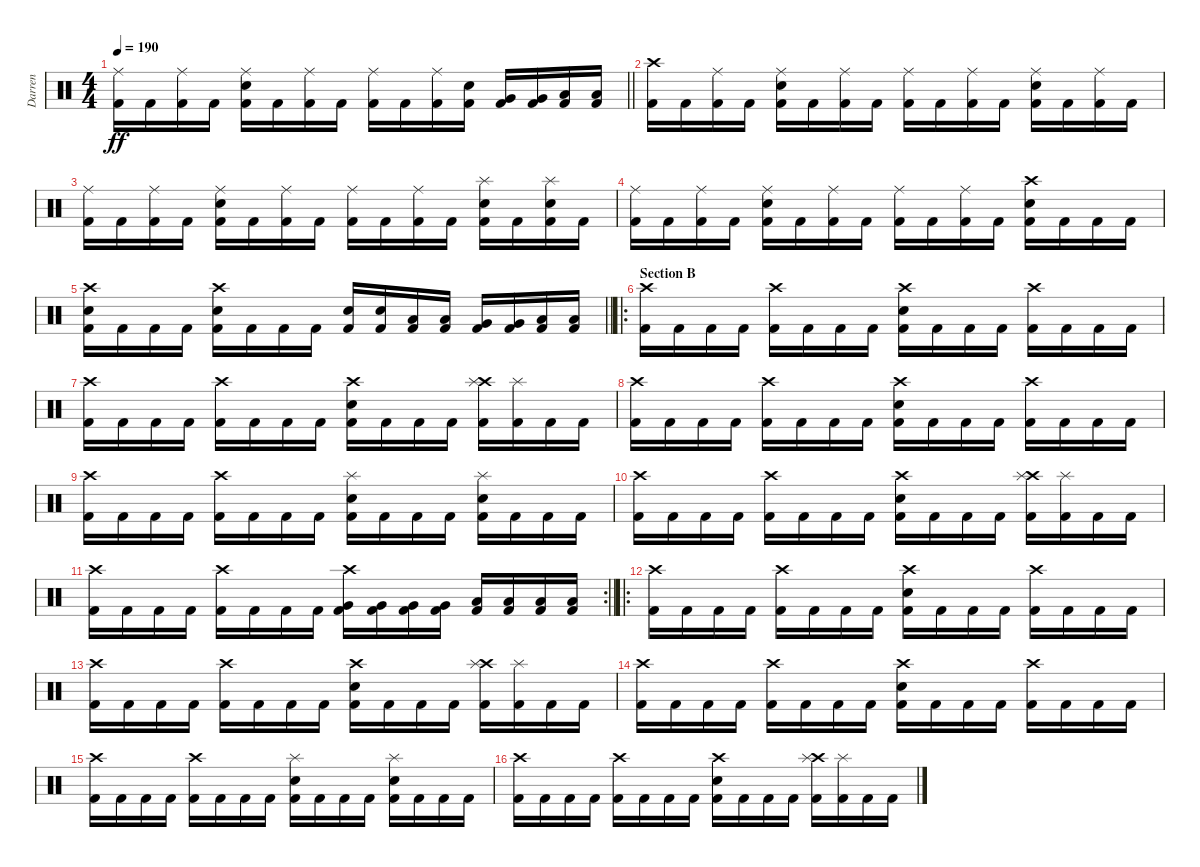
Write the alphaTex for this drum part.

\track ("Darren" "Darren") {instrument percussion}
\staff {score}
\articulation defaults
\ts (4 4)
\tempo 190
\clef neutral
\barLineRight lightlight
\ks c
("Ride (middle)" "Kick (hit) 2").16{dy ff} "Kick (hit) 2".16 ("Ride (middle)" "Kick (hit) 2").16 "Kick (hit) 2".16 ("Ride (middle)" "Electric Snare (hit)" "Kick (hit) 2").16 "Kick (hit) 2".16 ("Ride (middle)" "Kick (hit) 2").16 "Kick (hit) 2".16 ("Ride (middle)" "Kick (hit) 2").16 "Kick (hit) 2".16 ("Ride (middle)" "Kick (hit) 2").16 ("Electric Snare (hit)" "Kick (hit) 2").16 ("Very Low Tom (hit)" "Kick (hit) 2").16 ("Very Low Tom (hit)" "Kick (hit) 2").16 ("Low Floor Tom (hit)" "Kick (hit) 2").16 ("Low Floor Tom (hit)" "Kick (hit) 2").16 |
("Crash high (hit)" "Kick (hit) 2").16 "Kick (hit) 2".16 ("Ride (middle)" "Kick (hit) 2").16 "Kick (hit) 2".16 ("Ride (middle)" "Electric Snare (hit)" "Kick (hit) 2").16 "Kick (hit) 2".16 ("Ride (middle)" "Kick (hit) 2").16 "Kick (hit) 2".16 ("Ride (middle)" "Kick (hit) 2").16 "Kick (hit) 2".16 ("Ride (middle)" "Kick (hit) 2").16 "Kick (hit) 2".16 ("Ride (middle)" "Electric Snare (hit)" "Kick (hit) 2").16 "Kick (hit) 2".16 ("Ride (middle)" "Kick (hit) 2").16 "Kick (hit) 2".16 |
("Ride (middle)" "Kick (hit) 2").16 "Kick (hit) 2".16 ("Ride (middle)" "Kick (hit) 2").16 "Kick (hit) 2".16 ("Ride (middle)" "Electric Snare (hit)" "Kick (hit) 2").16 "Kick (hit) 2".16 ("Ride (middle)" "Kick (hit) 2").16 "Kick (hit) 2".16 ("Ride (middle)" "Kick (hit) 2").16 "Kick (hit) 2".16 ("Ride (middle)" "Kick (hit) 2").16 "Kick (hit) 2".16 ("Splash (hit)" "Electric Snare (hit)" "Kick (hit) 2").16 "Kick (hit) 2".16 ("Splash (hit)" "Electric Snare (hit)" "Kick (hit) 2").16 "Kick (hit) 2".16 |
("Ride (middle)" "Kick (hit) 2").16 "Kick (hit) 2".16 ("Ride (middle)" "Kick (hit) 2").16 "Kick (hit) 2".16 ("Ride (middle)" "Electric Snare (hit)" "Kick (hit) 2").16 "Kick (hit) 2".16 ("Ride (middle)" "Kick (hit) 2").16 "Kick (hit) 2".16 ("Ride (middle)" "Kick (hit) 2").16 "Kick (hit) 2".16 ("Ride (middle)" "Kick (hit) 2").16 "Kick (hit) 2".16 ("Crash high (hit)" "Electric Snare (hit)" "Kick (hit) 2").16 "Kick (hit) 2".16 "Kick (hit) 2".16 "Kick (hit) 2".16 |
\barLineRight lightlight
("Crash high (hit)" "Electric Snare (hit)" "Kick (hit) 2").16 "Kick (hit) 2".16 "Kick (hit) 2".16 "Kick (hit) 2".16 ("Crash high (hit)" "Electric Snare (hit)" "Kick (hit) 2").16 "Kick (hit) 2".16 "Kick (hit) 2".16 "Kick (hit) 2".16 ("Electric Snare (hit)" "Kick (hit) 2").16 ("Electric Snare (hit)" "Kick (hit) 2").16 ("Low Tom (hit)" "Kick (hit) 2").16 ("Low Tom (hit)" "Kick (hit) 2").16 ("Very Low Tom (hit)" "Kick (hit) 2").16 ("Very Low Tom (hit)" "Kick (hit) 2").16 ("Low Floor Tom (hit)" "Kick (hit) 2").16 ("Low Floor Tom (hit)" "Kick (hit) 2").16 |
\ro
\section ("" "Section B")
("Crash high (hit)" "Kick (hit) 2").16 "Kick (hit) 2".16 "Kick (hit) 2".16 "Kick (hit) 2".16 ("Crash high (hit)" "Kick (hit) 2").16 "Kick (hit) 2".16 "Kick (hit) 2".16 "Kick (hit) 2".16 ("Crash high (hit)" "Electric Snare (hit)" "Kick (hit) 2").16 "Kick (hit) 2".16 "Kick (hit) 2".16 "Kick (hit) 2".16 ("Crash high (hit)" "Kick (hit) 2").16 "Kick (hit) 2".16 "Kick (hit) 2".16 "Kick (hit) 2".16 |
("Crash high (hit)" "Kick (hit) 2").16 "Kick (hit) 2".16 "Kick (hit) 2".16 "Kick (hit) 2".16 ("Crash high (hit)" "Kick (hit) 2").16 "Kick (hit) 2".16 "Kick (hit) 2".16 "Kick (hit) 2".16 ("Crash high (hit)" "Electric Snare (hit)" "Kick (hit) 2").16 "Kick (hit) 2".16 "Kick (hit) 2".16 "Kick (hit) 2".16 ("Crash high (hit)" "Splash (hit)" "Kick (hit) 2").16 ("Splash (hit)" "Kick (hit) 2").16 "Kick (hit) 2".16 "Kick (hit) 2".16 |
("Crash high (hit)" "Kick (hit) 2").16 "Kick (hit) 2".16 "Kick (hit) 2".16 "Kick (hit) 2".16 ("Crash high (hit)" "Kick (hit) 2").16 "Kick (hit) 2".16 "Kick (hit) 2".16 "Kick (hit) 2".16 ("Crash high (hit)" "Electric Snare (hit)" "Kick (hit) 2").16 "Kick (hit) 2".16 "Kick (hit) 2".16 "Kick (hit) 2".16 ("Crash high (hit)" "Kick (hit) 2").16 "Kick (hit) 2".16 "Kick (hit) 2".16 "Kick (hit) 2".16 |
("Crash high (hit)" "Kick (hit) 2").16 "Kick (hit) 2".16 "Kick (hit) 2".16 "Kick (hit) 2".16 ("Crash high (hit)" "Kick (hit) 2").16 "Kick (hit) 2".16 "Kick (hit) 2".16 "Kick (hit) 2".16 ("Splash (hit)" "Electric Snare (hit)" "Kick (hit) 2").16 "Kick (hit) 2".16 "Kick (hit) 2".16 "Kick (hit) 2".16 ("Splash (hit)" "Electric Snare (hit)" "Kick (hit) 2").16 "Kick (hit) 2".16 "Kick (hit) 2".16 "Kick (hit) 2".16 |
("Crash high (hit)" "Kick (hit) 2").16 "Kick (hit) 2".16 "Kick (hit) 2".16 "Kick (hit) 2".16 ("Crash high (hit)" "Kick (hit) 2").16 "Kick (hit) 2".16 "Kick (hit) 2".16 "Kick (hit) 2".16 ("Crash high (hit)" "Electric Snare (hit)" "Kick (hit) 2").16 "Kick (hit) 2".16 "Kick (hit) 2".16 "Kick (hit) 2".16 ("Crash high (hit)" "Splash (hit)" "Kick (hit) 2").16 ("Splash (hit)" "Kick (hit) 2").16 "Kick (hit) 2".16 "Kick (hit) 2".16 |
\rc 2
\barLineRight lightlight
("Crash high (hit)" "Kick (hit) 2").16 "Kick (hit) 2".16 "Kick (hit) 2".16 "Kick (hit) 2".16 ("Crash high (hit)" "Kick (hit) 2").16 "Kick (hit) 2".16 "Kick (hit) 2".16 "Kick (hit) 2".16 ("Crash high (hit)" "Very Low Tom (hit)" "Kick (hit) 2").16 ("Very Low Tom (hit)" "Kick (hit) 2").16 ("Very Low Tom (hit)" "Kick (hit) 2").16 ("Very Low Tom (hit)" "Kick (hit) 2").16 ("Low Floor Tom (hit)" "Kick (hit) 2").16 ("Low Floor Tom (hit)" "Kick (hit) 2").16 ("Low Floor Tom (hit)" "Kick (hit) 2").16 ("Low Floor Tom (hit)" "Kick (hit) 2").16 |
\ro
("Crash high (hit)" "Kick (hit) 2").16 "Kick (hit) 2".16 "Kick (hit) 2".16 "Kick (hit) 2".16 ("Crash high (hit)" "Kick (hit) 2").16 "Kick (hit) 2".16 "Kick (hit) 2".16 "Kick (hit) 2".16 ("Crash high (hit)" "Electric Snare (hit)" "Kick (hit) 2").16 "Kick (hit) 2".16 "Kick (hit) 2".16 "Kick (hit) 2".16 ("Crash high (hit)" "Kick (hit) 2").16 "Kick (hit) 2".16 "Kick (hit) 2".16 "Kick (hit) 2".16 |
("Crash high (hit)" "Kick (hit) 2").16 "Kick (hit) 2".16 "Kick (hit) 2".16 "Kick (hit) 2".16 ("Crash high (hit)" "Kick (hit) 2").16 "Kick (hit) 2".16 "Kick (hit) 2".16 "Kick (hit) 2".16 ("Crash high (hit)" "Electric Snare (hit)" "Kick (hit) 2").16 "Kick (hit) 2".16 "Kick (hit) 2".16 "Kick (hit) 2".16 ("Crash high (hit)" "Splash (hit)" "Kick (hit) 2").16 ("Splash (hit)" "Kick (hit) 2").16 "Kick (hit) 2".16 "Kick (hit) 2".16 |
("Crash high (hit)" "Kick (hit) 2").16 "Kick (hit) 2".16 "Kick (hit) 2".16 "Kick (hit) 2".16 ("Crash high (hit)" "Kick (hit) 2").16 "Kick (hit) 2".16 "Kick (hit) 2".16 "Kick (hit) 2".16 ("Crash high (hit)" "Electric Snare (hit)" "Kick (hit) 2").16 "Kick (hit) 2".16 "Kick (hit) 2".16 "Kick (hit) 2".16 ("Crash high (hit)" "Kick (hit) 2").16 "Kick (hit) 2".16 "Kick (hit) 2".16 "Kick (hit) 2".16 |
("Crash high (hit)" "Kick (hit) 2").16 "Kick (hit) 2".16 "Kick (hit) 2".16 "Kick (hit) 2".16 ("Crash high (hit)" "Kick (hit) 2").16 "Kick (hit) 2".16 "Kick (hit) 2".16 "Kick (hit) 2".16 ("Splash (hit)" "Electric Snare (hit)" "Kick (hit) 2").16 "Kick (hit) 2".16 "Kick (hit) 2".16 "Kick (hit) 2".16 ("Splash (hit)" "Electric Snare (hit)" "Kick (hit) 2").16 "Kick (hit) 2".16 "Kick (hit) 2".16 "Kick (hit) 2".16 |
("Crash high (hit)" "Kick (hit) 2").16 "Kick (hit) 2".16 "Kick (hit) 2".16 "Kick (hit) 2".16 ("Crash high (hit)" "Kick (hit) 2").16 "Kick (hit) 2".16 "Kick (hit) 2".16 "Kick (hit) 2".16 ("Crash high (hit)" "Electric Snare (hit)" "Kick (hit) 2").16 "Kick (hit) 2".16 "Kick (hit) 2".16 "Kick (hit) 2".16 ("Crash high (hit)" "Splash (hit)" "Kick (hit) 2").16 ("Splash (hit)" "Kick (hit) 2").16 "Kick (hit) 2".16 "Kick (hit) 2".16
